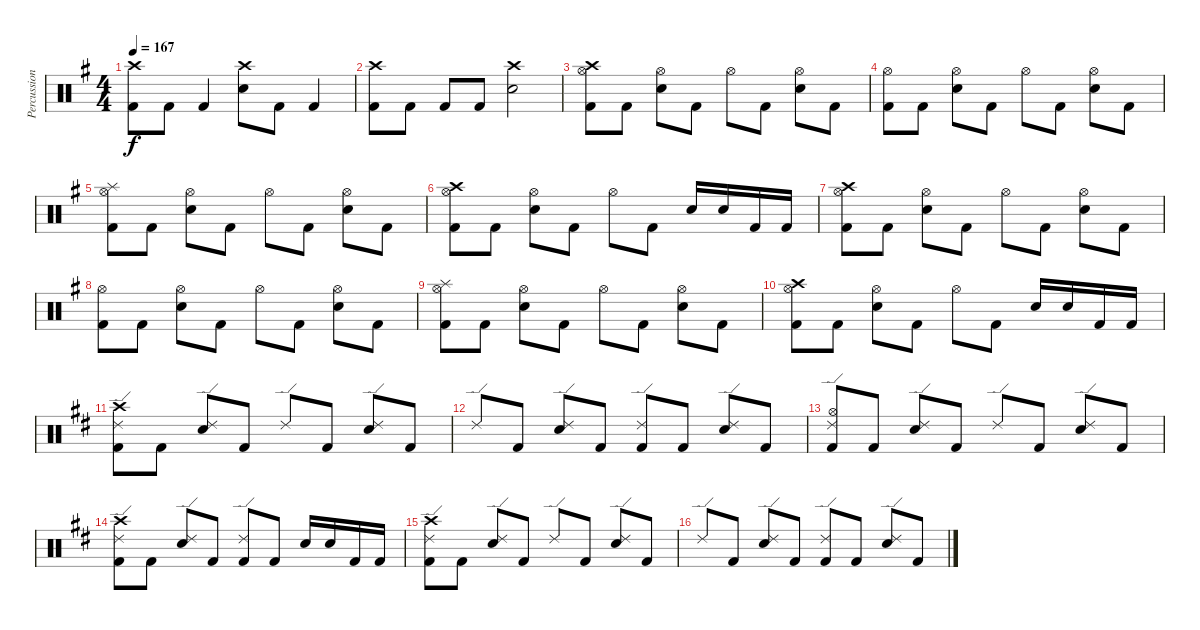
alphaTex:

\track ("Percussion" "Percussion") {instrument percussion}
\staff {score}
\articulation defaults
\ts (4 4)
\tempo 167
\clef neutral
\ks eminor
("Crash high (hit)" "Kick (hit) 2").8{dy f} "Kick (hit) 2".8 "Kick (hit) 2".4 ("Crash high (hit)" "Electric Snare (hit)").8 "Kick (hit) 2".8 "Kick (hit) 2".4 |
("Crash high (hit)" "Kick (hit) 2").8 "Kick (hit) 2".8 "Kick (hit) 2".8 "Kick (hit) 2".8 ("Crash high (hit)" "Electric Snare (hit)").2 |
("Hi-Hat (open)" "Crash high (hit)" "Kick (hit) 2").8 "Kick (hit) 2".8 ("Hi-Hat (open)" "Electric Snare (hit)").8 "Kick (hit) 2".8 "Hi-Hat (open)".8 "Kick (hit) 2".8 ("Hi-Hat (open)" "Electric Snare (hit)").8 "Kick (hit) 2".8 |
("Hi-Hat (open)" "Kick (hit) 2").8 "Kick (hit) 2".8 ("Hi-Hat (open)" "Electric Snare (hit)").8 "Kick (hit) 2".8 "Hi-Hat (open)".8 "Kick (hit) 2".8 ("Hi-Hat (open)" "Electric Snare (hit)").8 "Kick (hit) 2".8 |
("Hi-Hat (open)" "Splash (hit)" "Kick (hit) 2").8 "Kick (hit) 2".8 ("Hi-Hat (open)" "Electric Snare (hit)").8 "Kick (hit) 2".8 "Hi-Hat (open)".8 "Kick (hit) 2".8 ("Hi-Hat (open)" "Electric Snare (hit)").8 "Kick (hit) 2".8 |
("Hi-Hat (open)" "Crash high (hit)" "Kick (hit) 2").8 "Kick (hit) 2".8 ("Hi-Hat (open)" "Electric Snare (hit)").8 "Kick (hit) 2".8 "Hi-Hat (open)".8 "Kick (hit) 2".8 "Electric Snare (hit)".16 "Electric Snare (hit)".16 "Kick (hit) 2".16 "Kick (hit) 2".16 |
("Hi-Hat (open)" "Crash high (hit)" "Kick (hit) 2").8 "Kick (hit) 2".8 ("Hi-Hat (open)" "Electric Snare (hit)").8 "Kick (hit) 2".8 "Hi-Hat (open)".8 "Kick (hit) 2".8 ("Hi-Hat (open)" "Electric Snare (hit)").8 "Kick (hit) 2".8 |
("Hi-Hat (open)" "Kick (hit) 2").8 "Kick (hit) 2".8 ("Hi-Hat (open)" "Electric Snare (hit)").8 "Kick (hit) 2".8 "Hi-Hat (open)".8 "Kick (hit) 2".8 ("Hi-Hat (open)" "Electric Snare (hit)").8 "Kick (hit) 2".8 |
("Hi-Hat (open)" "Splash (hit)" "Kick (hit) 2").8 "Kick (hit) 2".8 ("Hi-Hat (open)" "Electric Snare (hit)").8 "Kick (hit) 2".8 "Hi-Hat (open)".8 "Kick (hit) 2".8 ("Hi-Hat (open)" "Electric Snare (hit)").8 "Kick (hit) 2".8 |
("Hi-Hat (open)" "Crash high (hit)" "Kick (hit) 2").8 "Kick (hit) 2".8 ("Hi-Hat (open)" "Electric Snare (hit)").8 "Kick (hit) 2".8 "Hi-Hat (open)".8 "Kick (hit) 2".8 "Electric Snare (hit)".16 "Electric Snare (hit)".16 "Kick (hit) 2".16 "Kick (hit) 2".16 |
\ks d
("Ride (edge) 2" "Crash high (hit)" "Kick (hit) 2").8 "Kick (hit) 2".8 ("Ride (edge) 2" "Electric Snare (hit)").8 "Kick (hit) 2".8 "Ride (edge) 2".8 "Kick (hit) 2".8 ("Ride (edge) 2" "Electric Snare (hit)").8 "Kick (hit) 2".8 |
"Ride (edge) 2".8 "Kick (hit) 2".8 ("Ride (edge) 2" "Electric Snare (hit)").8 "Kick (hit) 2".8 ("Ride (edge) 2" "Kick (hit) 2").8 "Kick (hit) 2".8 ("Ride (edge) 2" "Electric Snare (hit)").8 "Kick (hit) 2".8 |
("Ride (edge) 2" "Hi-Hat (open)" "Kick (hit) 2").8 "Kick (hit) 2".8 ("Ride (edge) 2" "Electric Snare (hit)").8 "Kick (hit) 2".8 "Ride (edge) 2".8 "Kick (hit) 2".8 ("Ride (edge) 2" "Electric Snare (hit)").8 "Kick (hit) 2".8 |
("Ride (edge) 2" "Crash high (hit)" "Kick (hit) 2").8 "Kick (hit) 2".8 ("Ride (edge) 2" "Electric Snare (hit)").8 "Kick (hit) 2".8 ("Ride (edge) 2" "Kick (hit) 2").8 "Kick (hit) 2".8 "Electric Snare (hit)".16 "Electric Snare (hit)".16 "Kick (hit) 2".16 "Kick (hit) 2".16 |
("Ride (edge) 2" "Crash high (hit)" "Kick (hit) 2").8 "Kick (hit) 2".8 ("Ride (edge) 2" "Electric Snare (hit)").8 "Kick (hit) 2".8 "Ride (edge) 2".8 "Kick (hit) 2".8 ("Ride (edge) 2" "Electric Snare (hit)").8 "Kick (hit) 2".8 |
"Ride (edge) 2".8 "Kick (hit) 2".8 ("Ride (edge) 2" "Electric Snare (hit)").8 "Kick (hit) 2".8 ("Ride (edge) 2" "Kick (hit) 2").8 "Kick (hit) 2".8 ("Ride (edge) 2" "Electric Snare (hit)").8 "Kick (hit) 2".8
